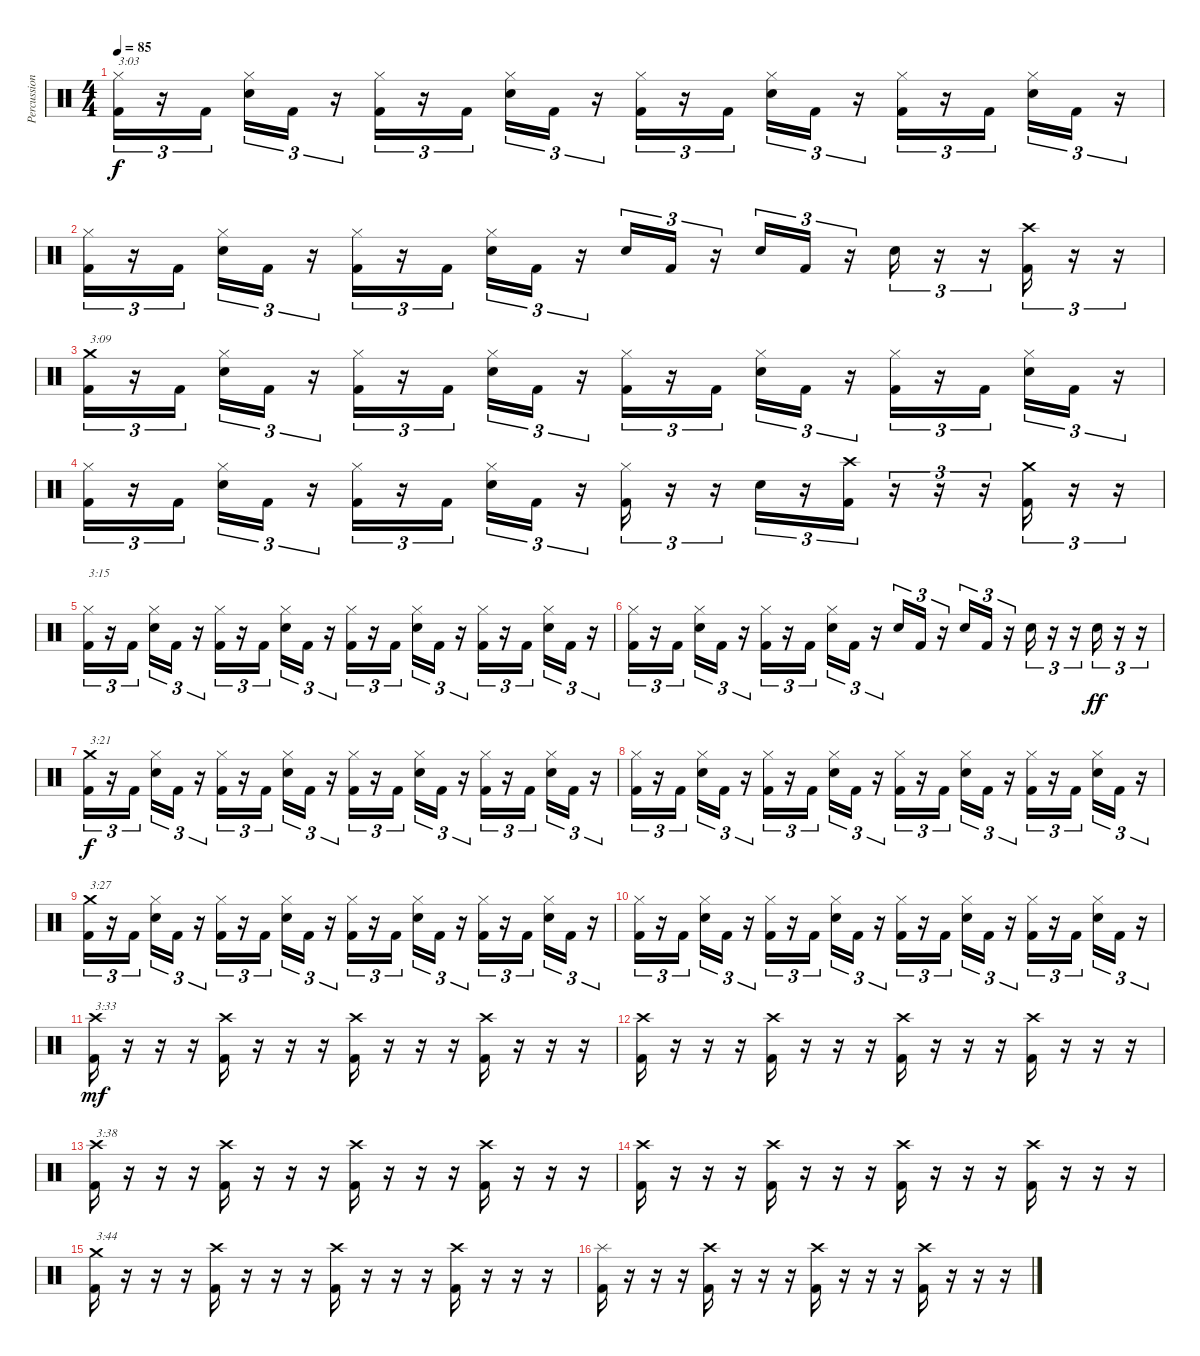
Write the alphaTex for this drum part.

\track ("Percussion" "Percussion") {instrument percussion}
\staff {score}
\articulation defaults
\ts (4 4)
\tempo 85
\clef neutral
\ks c
("Hi-Hat (closed)" "Kick (hit) 2").16{tu (3 2) txt "3:03" dy f} r.16{tu (3 2)} "Kick (hit) 2".16{tu (3 2)} ("Hi-Hat (closed)" "Snare (hit) 2").16{tu (3 2)} "Kick (hit) 2".16{tu (3 2)} r.16{tu (3 2)} ("Hi-Hat (closed)" "Kick (hit) 2").16{tu (3 2)} r.16{tu (3 2)} "Kick (hit) 2".16{tu (3 2)} ("Hi-Hat (closed)" "Snare (hit) 2").16{tu (3 2)} "Kick (hit) 2".16{tu (3 2)} r.16{tu (3 2)} ("Hi-Hat (closed)" "Kick (hit) 2").16{tu (3 2)} r.16{tu (3 2)} "Kick (hit) 2".16{tu (3 2)} ("Hi-Hat (closed)" "Snare (hit) 2").16{tu (3 2)} "Kick (hit) 2".16{tu (3 2)} r.16{tu (3 2)} ("Hi-Hat (closed)" "Kick (hit) 2").16{tu (3 2)} r.16{tu (3 2)} "Kick (hit) 2".16{tu (3 2)} ("Hi-Hat (closed)" "Snare (hit) 2").16{tu (3 2)} "Kick (hit) 2".16{tu (3 2)} r.16{tu (3 2)} |
("Hi-Hat (closed)" "Kick (hit) 2").16{tu (3 2)} r.16{tu (3 2)} "Kick (hit) 2".16{tu (3 2)} ("Hi-Hat (closed)" "Snare (hit) 2").16{tu (3 2)} "Kick (hit) 2".16{tu (3 2)} r.16{tu (3 2)} ("Hi-Hat (closed)" "Kick (hit) 2").16{tu (3 2)} r.16{tu (3 2)} "Kick (hit) 2".16{tu (3 2)} ("Hi-Hat (closed)" "Snare (hit) 2").16{tu (3 2)} "Kick (hit) 2".16{tu (3 2)} r.16{tu (3 2)} "Snare (hit) 2".16{tu (3 2)} "Kick (hit) 2".16{tu (3 2)} r.16{tu (3 2)} "Snare (hit) 2".16{tu (3 2)} "Kick (hit) 2".16{tu (3 2)} r.16{tu (3 2)} "Snare (hit) 2".16{tu (3 2)} r.16{tu (3 2)} r.16{tu (3 2)} ("Crash high (hit)" "Kick (hit) 2").16{tu (3 2)} r.16{tu (3 2)} r.16{tu (3 2)} |
("Crash medium (hit)" "Kick (hit) 2").16{tu (3 2) txt "3:09"} r.16{tu (3 2)} "Kick (hit) 2".16{tu (3 2)} ("Hi-Hat (closed)" "Snare (hit) 2").16{tu (3 2)} "Kick (hit) 2".16{tu (3 2)} r.16{tu (3 2)} ("Hi-Hat (closed)" "Kick (hit) 2").16{tu (3 2)} r.16{tu (3 2)} "Kick (hit) 2".16{tu (3 2)} ("Hi-Hat (closed)" "Snare (hit) 2").16{tu (3 2)} "Kick (hit) 2".16{tu (3 2)} r.16{tu (3 2)} ("Hi-Hat (closed)" "Kick (hit) 2").16{tu (3 2)} r.16{tu (3 2)} "Kick (hit) 2".16{tu (3 2)} ("Hi-Hat (closed)" "Snare (hit) 2").16{tu (3 2)} "Kick (hit) 2".16{tu (3 2)} r.16{tu (3 2)} ("Hi-Hat (closed)" "Kick (hit) 2").16{tu (3 2)} r.16{tu (3 2)} "Kick (hit) 2".16{tu (3 2)} ("Hi-Hat (closed)" "Snare (hit) 2").16{tu (3 2)} "Kick (hit) 2".16{tu (3 2)} r.16{tu (3 2)} |
("Hi-Hat (closed)" "Kick (hit) 2").16{tu (3 2)} r.16{tu (3 2)} "Kick (hit) 2".16{tu (3 2)} ("Hi-Hat (closed)" "Snare (hit) 2").16{tu (3 2)} "Kick (hit) 2".16{tu (3 2)} r.16{tu (3 2)} ("Hi-Hat (closed)" "Kick (hit) 2").16{tu (3 2)} r.16{tu (3 2)} "Kick (hit) 2".16{tu (3 2)} ("Hi-Hat (closed)" "Snare (hit) 2").16{tu (3 2)} "Kick (hit) 2".16{tu (3 2)} r.16{tu (3 2)} ("Hi-Hat (closed)" "Kick (hit) 2").16{tu (3 2)} r.16{tu (3 2)} r.16{tu (3 2)} "Snare (hit) 2".16{tu (3 2)} r.16{tu (3 2)} ("Crash high (hit)" "Kick (hit) 2").16{tu (3 2)} r.16{tu (3 2)} r.16{tu (3 2)} r.16{tu (3 2)} ("Crash medium (hit)" "Kick (hit) 2").16{tu (3 2)} r.16{tu (3 2)} r.16{tu (3 2)} |
("Hi-Hat (closed)" "Kick (hit) 2").16{tu (3 2) txt "3:15"} r.16{tu (3 2)} "Kick (hit) 2".16{tu (3 2)} ("Hi-Hat (closed)" "Snare (hit) 2").16{tu (3 2)} "Kick (hit) 2".16{tu (3 2)} r.16{tu (3 2)} ("Hi-Hat (closed)" "Kick (hit) 2").16{tu (3 2)} r.16{tu (3 2)} "Kick (hit) 2".16{tu (3 2)} ("Hi-Hat (closed)" "Snare (hit) 2").16{tu (3 2)} "Kick (hit) 2".16{tu (3 2)} r.16{tu (3 2)} ("Hi-Hat (closed)" "Kick (hit) 2").16{tu (3 2)} r.16{tu (3 2)} "Kick (hit) 2".16{tu (3 2)} ("Hi-Hat (closed)" "Snare (hit) 2").16{tu (3 2)} "Kick (hit) 2".16{tu (3 2)} r.16{tu (3 2)} ("Hi-Hat (closed)" "Kick (hit) 2").16{tu (3 2)} r.16{tu (3 2)} "Kick (hit) 2".16{tu (3 2)} ("Hi-Hat (closed)" "Snare (hit) 2").16{tu (3 2)} "Kick (hit) 2".16{tu (3 2)} r.16{tu (3 2)} |
("Hi-Hat (closed)" "Kick (hit) 2").16{tu (3 2)} r.16{tu (3 2)} "Kick (hit) 2".16{tu (3 2)} ("Hi-Hat (closed)" "Snare (hit) 2").16{tu (3 2)} "Kick (hit) 2".16{tu (3 2)} r.16{tu (3 2)} ("Hi-Hat (closed)" "Kick (hit) 2").16{tu (3 2)} r.16{tu (3 2)} "Kick (hit) 2".16{tu (3 2)} ("Hi-Hat (closed)" "Snare (hit) 2").16{tu (3 2)} "Kick (hit) 2".16{tu (3 2)} r.16{tu (3 2)} "Snare (hit) 2".16{tu (3 2)} "Kick (hit) 2".16{tu (3 2)} r.16{tu (3 2)} "Snare (hit) 2".16{tu (3 2)} "Kick (hit) 2".16{tu (3 2)} r.16{tu (3 2)} "Snare (hit) 2".16{tu (3 2)} r.16{tu (3 2)} r.16{tu (3 2)} "Snare (hit) 2".16{tu (3 2) dy ff} r.16{tu (3 2)} r.16{tu (3 2)} |
("Crash medium (hit)" "Kick (hit) 2").16{tu (3 2) txt "3:21" dy f} r.16{tu (3 2)} "Kick (hit) 2".16{tu (3 2)} ("Hi-Hat (closed)" "Snare (hit) 2").16{tu (3 2)} "Kick (hit) 2".16{tu (3 2)} r.16{tu (3 2)} ("Hi-Hat (closed)" "Kick (hit) 2").16{tu (3 2)} r.16{tu (3 2)} "Kick (hit) 2".16{tu (3 2)} ("Hi-Hat (closed)" "Snare (hit) 2").16{tu (3 2)} "Kick (hit) 2".16{tu (3 2)} r.16{tu (3 2)} ("Hi-Hat (closed)" "Kick (hit) 2").16{tu (3 2)} r.16{tu (3 2)} "Kick (hit) 2".16{tu (3 2)} ("Hi-Hat (closed)" "Snare (hit) 2").16{tu (3 2)} "Kick (hit) 2".16{tu (3 2)} r.16{tu (3 2)} ("Hi-Hat (closed)" "Kick (hit) 2").16{tu (3 2)} r.16{tu (3 2)} "Kick (hit) 2".16{tu (3 2)} ("Hi-Hat (closed)" "Snare (hit) 2").16{tu (3 2)} "Kick (hit) 2".16{tu (3 2)} r.16{tu (3 2)} |
("Hi-Hat (closed)" "Kick (hit) 2").16{tu (3 2)} r.16{tu (3 2)} "Kick (hit) 2".16{tu (3 2)} ("Hi-Hat (closed)" "Snare (hit) 2").16{tu (3 2)} "Kick (hit) 2".16{tu (3 2)} r.16{tu (3 2)} ("Hi-Hat (closed)" "Kick (hit) 2").16{tu (3 2)} r.16{tu (3 2)} "Kick (hit) 2".16{tu (3 2)} ("Hi-Hat (closed)" "Snare (hit) 2").16{tu (3 2)} "Kick (hit) 2".16{tu (3 2)} r.16{tu (3 2)} ("Hi-Hat (closed)" "Kick (hit) 2").16{tu (3 2)} r.16{tu (3 2)} "Kick (hit) 2".16{tu (3 2)} ("Hi-Hat (closed)" "Snare (hit) 2").16{tu (3 2)} "Kick (hit) 2".16{tu (3 2)} r.16{tu (3 2)} ("Hi-Hat (closed)" "Kick (hit) 2").16{tu (3 2)} r.16{tu (3 2)} "Kick (hit) 2".16{tu (3 2)} ("Hi-Hat (closed)" "Snare (hit) 2").16{tu (3 2)} "Kick (hit) 2".16{tu (3 2)} r.16{tu (3 2)} |
("Crash medium (hit)" "Kick (hit) 2").16{tu (3 2) txt "3:27"} r.16{tu (3 2)} "Kick (hit) 2".16{tu (3 2)} ("Hi-Hat (closed)" "Snare (hit) 2").16{tu (3 2)} "Kick (hit) 2".16{tu (3 2)} r.16{tu (3 2)} ("Hi-Hat (closed)" "Kick (hit) 2").16{tu (3 2)} r.16{tu (3 2)} "Kick (hit) 2".16{tu (3 2)} ("Hi-Hat (closed)" "Snare (hit) 2").16{tu (3 2)} "Kick (hit) 2".16{tu (3 2)} r.16{tu (3 2)} ("Hi-Hat (closed)" "Kick (hit) 2").16{tu (3 2)} r.16{tu (3 2)} "Kick (hit) 2".16{tu (3 2)} ("Hi-Hat (closed)" "Snare (hit) 2").16{tu (3 2)} "Kick (hit) 2".16{tu (3 2)} r.16{tu (3 2)} ("Hi-Hat (closed)" "Kick (hit) 2").16{tu (3 2)} r.16{tu (3 2)} "Kick (hit) 2".16{tu (3 2)} ("Hi-Hat (closed)" "Snare (hit) 2").16{tu (3 2)} "Kick (hit) 2".16{tu (3 2)} r.16{tu (3 2)} |
("Hi-Hat (closed)" "Kick (hit) 2").16{tu (3 2)} r.16{tu (3 2)} "Kick (hit) 2".16{tu (3 2)} ("Hi-Hat (closed)" "Snare (hit) 2").16{tu (3 2)} "Kick (hit) 2".16{tu (3 2)} r.16{tu (3 2)} ("Hi-Hat (closed)" "Kick (hit) 2").16{tu (3 2)} r.16{tu (3 2)} "Kick (hit) 2".16{tu (3 2)} ("Hi-Hat (closed)" "Snare (hit) 2").16{tu (3 2)} "Kick (hit) 2".16{tu (3 2)} r.16{tu (3 2)} ("Hi-Hat (closed)" "Kick (hit) 2").16{tu (3 2)} r.16{tu (3 2)} "Kick (hit) 2".16{tu (3 2)} ("Hi-Hat (closed)" "Snare (hit) 2").16{tu (3 2)} "Kick (hit) 2".16{tu (3 2)} r.16{tu (3 2)} ("Hi-Hat (closed)" "Kick (hit) 2").16{tu (3 2)} r.16{tu (3 2)} "Kick (hit) 2".16{tu (3 2)} ("Hi-Hat (closed)" "Snare (hit) 2").16{tu (3 2)} "Kick (hit) 2".16{tu (3 2)} r.16{tu (3 2)} |
("Crash high (hit)" "Kick (hit) 2").16{txt "3:33" dy mf} r.16{volume 0} r.16 r.16 ("Crash high (hit)" "Kick (hit) 2").16{volume 13} r.16{volume 0} r.16 r.16 ("Crash high (hit)" "Kick (hit) 2").16{volume 13} r.16{volume 0} r.16 r.16 ("Crash high (hit)" "Kick (hit) 2").16{volume 13} r.16{volume 0} r.16 r.16 |
("Crash high (hit)" "Kick (hit) 2").16{volume 13} r.16{volume 0} r.16 r.16 ("Crash high (hit)" "Kick (hit) 2").16{volume 13} r.16{volume 0} r.16 r.16 ("Crash high (hit)" "Kick (hit) 2").16{volume 13} r.16{volume 0} r.16 r.16 ("Crash high (hit)" "Kick (hit) 2").16{volume 13} r.16{volume 0} r.16 r.16 |
("Crash high (hit)" "Kick (hit) 2").16{txt "3:38" volume 13} r.16{volume 0} r.16 r.16 ("Crash high (hit)" "Kick (hit) 2").16{volume 13} r.16{volume 0} r.16 r.16 ("Crash high (hit)" "Kick (hit) 2").16{volume 13} r.16{volume 0} r.16 r.16 ("Crash high (hit)" "Kick (hit) 2").16{volume 13} r.16{volume 0} r.16 r.16 |
("Crash high (hit)" "Kick (hit) 2").16{volume 13} r.16{volume 0} r.16 r.16 ("Crash high (hit)" "Kick (hit) 2").16{volume 13} r.16{volume 0} r.16 r.16 ("Crash high (hit)" "Kick (hit) 2").16{volume 13} r.16{volume 0} r.16 r.16 ("Crash high (hit)" "Kick (hit) 2").16{volume 13} r.16{volume 0} r.16 r.16 |
("Crash medium (hit)" "Kick (hit) 2").16{txt "3:44" volume 13} r.16{volume 0} r.16 r.16 ("Crash high (hit)" "Kick (hit) 2").16{volume 13} r.16{volume 0} r.16 r.16 ("Crash high (hit)" "Kick (hit) 2").16{volume 13} r.16{volume 0} r.16 r.16 ("Crash high (hit)" "Kick (hit) 2").16{volume 13} r.16{volume 0} r.16 r.16 |
("Splash (hit)" "Kick (hit) 2").16{volume 13} r.16{volume 0} r.16 r.16 ("Crash high (hit)" "Kick (hit) 2").16{volume 13} r.16{volume 0} r.16 r.16 ("Crash high (hit)" "Kick (hit) 2").16{volume 13} r.16{volume 0} r.16 r.16 ("Crash high (hit)" "Kick (hit) 2").16{volume 13} r.16{volume 0} r.16 r.16
